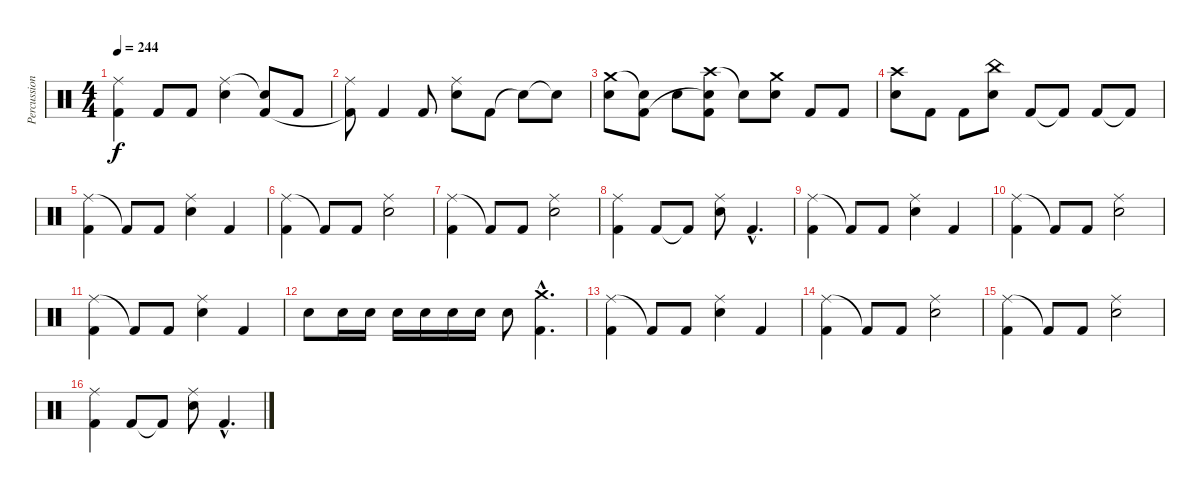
\track ("Percussions" "Percussion") {instrument percussion}
\staff {score}
\articulation defaults
\ts (4 4)
\tempo 244
\clef neutral
\ks c
("Ride (middle)" "Kick (hit) 2").4{dy f} "Kick (hit) 2".8 "Kick (hit) 2".8 ("Ride (middle)" "Electric Snare (hit)").4 ("Snare (hit)"{t} "Kick (hit) 2").8 "Kick (hit) 2".8 |
("Ride (middle)" "Kick (hit) 2"{t}).8 "Kick (hit) 2".4 "Kick (hit) 2".8 ("Ride (middle)" "Electric Snare (hit)").8 "Kick (hit) 2".8 "Snare (hit)"{t}.8 "Snare (hit)"{t}.8 |
("Crash medium (hit)" "Electric Snare (hit)").8 ("Snare (hit)"{t} "Kick (hit) 2").8 "Electric Snare (hit)".8 ("Crash high (hit)" "Snare (hit)"{t} "Kick (hit) 2").8 "Snare (hit)"{t}.8 ("Crash medium (hit)" "Electric Snare (hit)").8 "Kick (hit) 2".8 "Kick (hit) 2".8 |
("Crash high (hit)" "Electric Snare (hit)").8 "Kick (hit) 2".8 "Kick (hit) 2".8 ("China (hit)" "Electric Snare (hit)").8 "Kick (hit) 2".8 "Kick (hit) 2"{t}.8 "Kick (hit) 2".8 "Kick (hit) 2"{t}.8 |
("Ride (middle)" "Kick (hit) 2").4 "Kick (hit) 2"{t}.8 "Kick (hit) 2".8 ("Ride (middle)" "Electric Snare (hit)").4 "Kick (hit) 2".4 |
("Ride (middle)" "Kick (hit) 2").4 "Kick (hit) 2"{t}.8 "Kick (hit) 2".8 ("Ride (middle)" "Electric Snare (hit)").2 |
("Ride (middle)" "Kick (hit) 2").4 "Kick (hit) 2"{t}.8 "Kick (hit) 2".8 ("Ride (middle)" "Electric Snare (hit)").2 |
("Ride (middle)" "Kick (hit) 2").4 "Kick (hit) 2".8 "Kick (hit) 2"{t}.8 ("Ride (middle)" "Electric Snare (hit)").8 "Kick (hit) 2"{hac}.4{d} |
("Ride (middle)" "Kick (hit) 2").4 "Kick (hit) 2"{t}.8 "Kick (hit) 2".8 ("Ride (middle)" "Electric Snare (hit)").4 "Kick (hit) 2".4 |
("Ride (middle)" "Kick (hit) 2").4 "Kick (hit) 2"{t}.8 "Kick (hit) 2".8 ("Ride (middle)" "Electric Snare (hit)").2 |
("Ride (middle)" "Kick (hit) 2").4 "Kick (hit) 2"{t}.8 "Kick (hit) 2".8 ("Ride (middle)" "Electric Snare (hit)").4 "Kick (hit) 2".4 |
"Electric Snare (hit)".8 "Electric Snare (hit)".16 "Electric Snare (hit)".16 "Electric Snare (hit)".16 "Electric Snare (hit)".16 "Electric Snare (hit)".16 "Electric Snare (hit)".16 "Electric Snare (hit)".8 ("Crash medium (hit)"{hac} "Kick (hit) 2"{hac}).4{d} |
("Ride (middle)" "Kick (hit) 2").4 "Kick (hit) 2"{t}.8 "Kick (hit) 2".8 ("Ride (middle)" "Electric Snare (hit)").4 "Kick (hit) 2".4 |
("Ride (middle)" "Kick (hit) 2").4 "Kick (hit) 2"{t}.8 "Kick (hit) 2".8 ("Ride (middle)" "Electric Snare (hit)").2 |
("Ride (middle)" "Kick (hit) 2").4 "Kick (hit) 2"{t}.8 "Kick (hit) 2".8 ("Ride (middle)" "Electric Snare (hit)").2 |
("Ride (middle)" "Kick (hit) 2").4 "Kick (hit) 2".8 "Kick (hit) 2"{t}.8 ("Ride (middle)" "Electric Snare (hit)").8 "Kick (hit) 2"{hac}.4{d}
